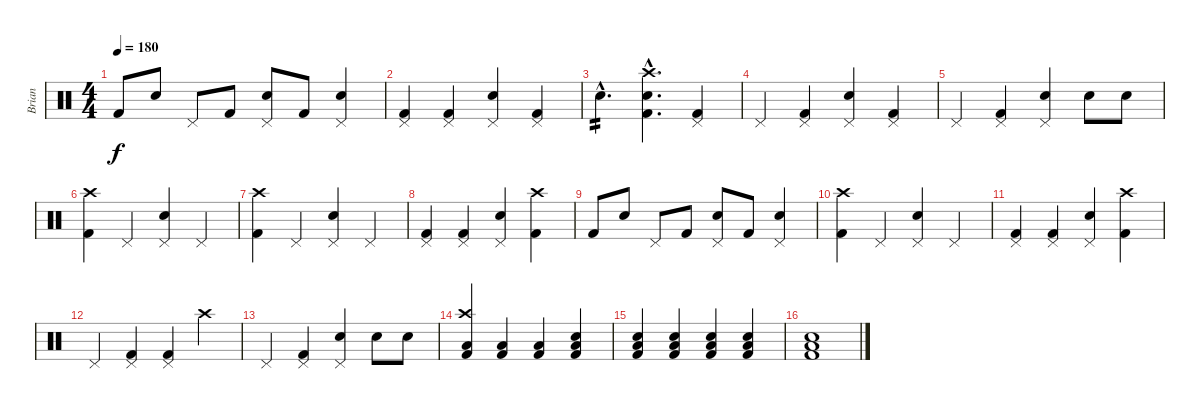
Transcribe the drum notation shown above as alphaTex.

\track ("Brian" "Brian") {instrument percussion}
\staff {score}
\articulation defaults
\ts (4 4)
\tempo 180
\clef neutral
\ks c "Kick (hit) 2".8{dy f} "Snare (hit) 2".8 "Pedal Hi-Hat (hit)".8 "Kick (hit) 2".8
("Pedal Hi-Hat (hit)" "Snare (hit) 2").8 "Kick (hit) 2".8 ("Pedal Hi-Hat (hit)" "Snare (hit) 2").4 |
("Pedal Hi-Hat (hit)" "Kick (hit) 2").4 ("Pedal Hi-Hat (hit)" "Kick (hit) 2").4 ("Pedal Hi-Hat (hit)" "Snare (hit) 2").4 ("Pedal Hi-Hat (hit)" "Kick (hit) 2").4 |
"Snare (hit) 2"{hac}.4{d tp 2} ("Crash high (hit)"{hac} "Kick (hit) 2"{hac} "Snare (hit) 2"{hac}).4{d} ("Pedal Hi-Hat (hit)" "Kick (hit) 2").4 |
"Pedal Hi-Hat (hit)".4 ("Pedal Hi-Hat (hit)" "Kick (hit) 2").4 ("Pedal Hi-Hat (hit)" "Snare (hit) 2").4 ("Pedal Hi-Hat (hit)" "Kick (hit) 2").4 |
"Pedal Hi-Hat (hit)".4 ("Pedal Hi-Hat (hit)" "Kick (hit) 2").4 ("Pedal Hi-Hat (hit)" "Snare (hit) 2").4 "Snare (hit) 2".8 "Snare (hit) 2".8 |
("Crash high (hit)" "Kick (hit) 2").4 "Pedal Hi-Hat (hit)".4 ("Pedal Hi-Hat (hit)" "Snare (hit) 2").4 "Pedal Hi-Hat (hit)".4 |
("Crash high (hit)" "Kick (hit) 2").4 "Pedal Hi-Hat (hit)".4 ("Pedal Hi-Hat (hit)" "Snare (hit) 2").4 "Pedal Hi-Hat (hit)".4 |
("Pedal Hi-Hat (hit)" "Kick (hit) 2").4 ("Pedal Hi-Hat (hit)" "Kick (hit) 2").4 ("Pedal Hi-Hat (hit)" "Snare (hit) 2").4 ("Crash high (hit)" "Kick (hit) 2").4 |
"Kick (hit) 2".8 "Snare (hit) 2".8 "Pedal Hi-Hat (hit)".8 "Kick (hit) 2".8 ("Pedal Hi-Hat (hit)" "Snare (hit) 2").8 "Kick (hit) 2".8 ("Pedal Hi-Hat (hit)" "Snare (hit) 2").4 |
("Crash high (hit)" "Kick (hit) 2").4 "Pedal Hi-Hat (hit)".4 ("Pedal Hi-Hat (hit)" "Snare (hit) 2").4 "Pedal Hi-Hat (hit)".4 |
("Pedal Hi-Hat (hit)" "Kick (hit) 2").4 ("Pedal Hi-Hat (hit)" "Kick (hit) 2").4 ("Pedal Hi-Hat (hit)" "Snare (hit) 2").4 ("Crash high (hit)" "Kick (hit) 2").4 |
"Pedal Hi-Hat (hit)".4 ("Pedal Hi-Hat (hit)" "Kick (hit) 2").4 ("Pedal Hi-Hat (hit)" "Kick (hit) 2").4 "Crash high (hit)".4 |
"Pedal Hi-Hat (hit)".4 ("Pedal Hi-Hat (hit)" "Kick (hit) 2").4 ("Pedal Hi-Hat (hit)" "Snare (hit) 2").4 "Snare (hit) 2".8 "Snare (hit) 2".8 |
("Crash high (hit)" "Kick (hit) 2" "Low Floor Tom (hit)").4 ("Kick (hit) 2" "Low Floor Tom (hit)").4 ("Kick (hit) 2" "Low Floor Tom (hit)").4 ("Kick (hit) 2" "Snare (hit) 2" "Low Floor Tom (hit)").4 |
("Kick (hit) 2" "Snare (hit) 2" "Low Floor Tom (hit)").4 ("Kick (hit) 2" "Snare (hit) 2" "Low Floor Tom (hit)").4 ("Kick (hit) 2" "Snare (hit) 2" "Low Floor Tom (hit)").4 ("Kick (hit) 2" "Snare (hit) 2" "Low Floor Tom (hit)").4 |
("Kick (hit) 2" "Snare (hit) 2" "Low Floor Tom (hit)").1
